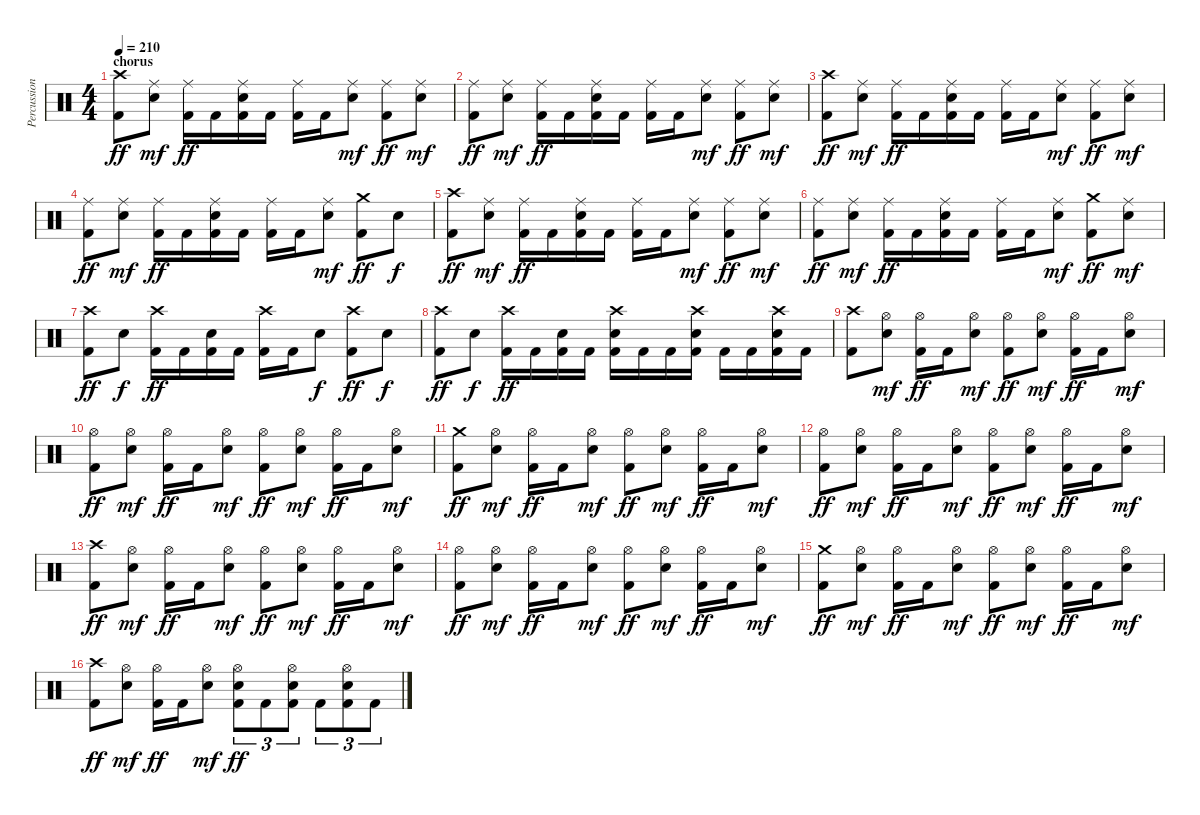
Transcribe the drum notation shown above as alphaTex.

\track ("Percussion" "Percussion") {instrument percussion}
\staff {score}
\articulation defaults
\ts (4 4)
\section ("" "chorus")
\tempo 210
\clef neutral
\ks c
("Crash high (hit)" "Kick (hit) 2").8{dy ff} ("Ride (middle)" "Snare (hit) 2").8{dy mf} ("Ride (middle)" "Kick (hit) 2").16{dy ff} "Kick (hit) 2".16 ("Ride (middle)" "Snare (hit) 2" "Kick (hit) 2").16 "Kick (hit) 2".16 ("Ride (middle)" "Kick (hit) 2").16 "Kick (hit) 2".16 ("Ride (middle)" "Snare (hit) 2").8{dy mf} ("Ride (middle)" "Kick (hit) 2").8{dy ff} ("Ride (middle)" "Snare (hit) 2").8{dy mf} |
("Ride (middle)" "Kick (hit) 2").8{dy ff} ("Ride (middle)" "Snare (hit) 2").8{dy mf} ("Ride (middle)" "Kick (hit) 2").16{dy ff} "Kick (hit) 2".16 ("Ride (middle)" "Snare (hit) 2" "Kick (hit) 2").16 "Kick (hit) 2".16 ("Ride (middle)" "Kick (hit) 2").16 "Kick (hit) 2".16 ("Ride (middle)" "Snare (hit) 2").8{dy mf} ("Ride (middle)" "Kick (hit) 2").8{dy ff} ("Ride (middle)" "Snare (hit) 2").8{dy mf} |
("Crash high (hit)" "Kick (hit) 2").8{dy ff} ("Ride (middle)" "Snare (hit) 2").8{dy mf} ("Ride (middle)" "Kick (hit) 2").16{dy ff} "Kick (hit) 2".16 ("Ride (middle)" "Snare (hit) 2" "Kick (hit) 2").16 "Kick (hit) 2".16 ("Ride (middle)" "Kick (hit) 2").16 "Kick (hit) 2".16 ("Ride (middle)" "Snare (hit) 2").8{dy mf} ("Ride (middle)" "Kick (hit) 2").8{dy ff} ("Ride (middle)" "Snare (hit) 2").8{dy mf} |
("Ride (middle)" "Kick (hit) 2").8{dy ff} ("Ride (middle)" "Snare (hit) 2").8{dy mf} ("Ride (middle)" "Kick (hit) 2").16{dy ff} "Kick (hit) 2".16 ("Ride (middle)" "Snare (hit) 2" "Kick (hit) 2").16 "Kick (hit) 2".16 ("Ride (middle)" "Kick (hit) 2").16 "Kick (hit) 2".16 ("Ride (middle)" "Snare (hit) 2").8{dy mf} ("Crash medium (hit)" "Kick (hit) 2").8{dy ff} "Snare (hit) 2".8{dy f} |
("Crash high (hit)" "Kick (hit) 2").8{dy ff} ("Ride (middle)" "Snare (hit) 2").8{dy mf} ("Ride (middle)" "Kick (hit) 2").16{dy ff} "Kick (hit) 2".16 ("Ride (middle)" "Snare (hit) 2" "Kick (hit) 2").16 "Kick (hit) 2".16 ("Ride (middle)" "Kick (hit) 2").16 "Kick (hit) 2".16 ("Ride (middle)" "Snare (hit) 2").8{dy mf} ("Ride (middle)" "Kick (hit) 2").8{dy ff} ("Ride (middle)" "Snare (hit) 2").8{dy mf} |
("Ride (middle)" "Kick (hit) 2").8{dy ff} ("Ride (middle)" "Snare (hit) 2").8{dy mf} ("Ride (middle)" "Kick (hit) 2").16{dy ff} "Kick (hit) 2".16 ("Ride (middle)" "Snare (hit) 2" "Kick (hit) 2").16 "Kick (hit) 2".16 ("Ride (middle)" "Kick (hit) 2").16 "Kick (hit) 2".16 ("Ride (middle)" "Snare (hit) 2").8{dy mf} ("Crash medium (hit)" "Kick (hit) 2").8{dy ff} ("Ride (middle)" "Snare (hit) 2").8{dy mf} |
("Crash high (hit)" "Kick (hit) 2").8{dy ff} "Snare (hit) 2".8{dy f} ("Crash high (hit)" "Kick (hit) 2").16{dy ff} "Kick (hit) 2".16 ("Snare (hit) 2" "Kick (hit) 2").16 "Kick (hit) 2".16 ("Crash high (hit)" "Kick (hit) 2").16 "Kick (hit) 2".16 "Snare (hit) 2".8{dy f} ("Crash high (hit)" "Kick (hit) 2").8{dy ff} "Snare (hit) 2".8{dy f} |
("Crash high (hit)" "Kick (hit) 2").8{dy ff} "Snare (hit) 2".8{dy f} ("Crash high (hit)" "Kick (hit) 2").16{dy ff} "Kick (hit) 2".16 ("Snare (hit) 2" "Kick (hit) 2").16 "Kick (hit) 2".16 ("Crash high (hit)" "Snare (hit) 2" "Kick (hit) 2").16 "Kick (hit) 2".16 "Kick (hit) 2".16 ("Crash high (hit)" "Snare (hit) 2" "Kick (hit) 2").16 "Kick (hit) 2".16 "Kick (hit) 2".16 ("Crash high (hit)" "Snare (hit) 2" "Kick (hit) 2").16 "Kick (hit) 2".16 |
("Crash high (hit)" "Kick (hit) 2").8 ("Hi-Hat (open)" "Snare (hit) 2").8{dy mf} ("Hi-Hat (open)" "Kick (hit) 2").16{dy ff} "Kick (hit) 2".16 ("Hi-Hat (open)" "Snare (hit) 2").8{dy mf} ("Hi-Hat (open)" "Kick (hit) 2").8{dy ff} ("Hi-Hat (open)" "Snare (hit) 2").8{dy mf} ("Hi-Hat (open)" "Kick (hit) 2").16{dy ff} "Kick (hit) 2".16 ("Hi-Hat (open)" "Snare (hit) 2").8{dy mf} |
("Hi-Hat (open)" "Kick (hit) 2").8{dy ff} ("Hi-Hat (open)" "Snare (hit) 2").8{dy mf} ("Hi-Hat (open)" "Kick (hit) 2").16{dy ff} "Kick (hit) 2".16 ("Hi-Hat (open)" "Snare (hit) 2").8{dy mf} ("Hi-Hat (open)" "Kick (hit) 2").8{dy ff} ("Hi-Hat (open)" "Snare (hit) 2").8{dy mf} ("Hi-Hat (open)" "Kick (hit) 2").16{dy ff} "Kick (hit) 2".16 ("Hi-Hat (open)" "Snare (hit) 2").8{dy mf} |
("Crash medium (hit)" "Kick (hit) 2").8{dy ff} ("Hi-Hat (open)" "Snare (hit) 2").8{dy mf} ("Hi-Hat (open)" "Kick (hit) 2").16{dy ff} "Kick (hit) 2".16 ("Hi-Hat (open)" "Snare (hit) 2").8{dy mf} ("Hi-Hat (open)" "Kick (hit) 2").8{dy ff} ("Hi-Hat (open)" "Snare (hit) 2").8{dy mf} ("Hi-Hat (open)" "Kick (hit) 2").16{dy ff} "Kick (hit) 2".16 ("Hi-Hat (open)" "Snare (hit) 2").8{dy mf} |
("Hi-Hat (open)" "Kick (hit) 2").8{dy ff} ("Hi-Hat (open)" "Snare (hit) 2").8{dy mf} ("Hi-Hat (open)" "Kick (hit) 2").16{dy ff} "Kick (hit) 2".16 ("Hi-Hat (open)" "Snare (hit) 2").8{dy mf} ("Hi-Hat (open)" "Kick (hit) 2").8{dy ff} ("Hi-Hat (open)" "Snare (hit) 2").8{dy mf} ("Hi-Hat (open)" "Kick (hit) 2").16{dy ff} "Kick (hit) 2".16 ("Hi-Hat (open)" "Snare (hit) 2").8{dy mf} |
("Crash high (hit)" "Kick (hit) 2").8{dy ff} ("Hi-Hat (open)" "Snare (hit) 2").8{dy mf} ("Hi-Hat (open)" "Kick (hit) 2").16{dy ff} "Kick (hit) 2".16 ("Hi-Hat (open)" "Snare (hit) 2").8{dy mf} ("Hi-Hat (open)" "Kick (hit) 2").8{dy ff} ("Hi-Hat (open)" "Snare (hit) 2").8{dy mf} ("Hi-Hat (open)" "Kick (hit) 2").16{dy ff} "Kick (hit) 2".16 ("Hi-Hat (open)" "Snare (hit) 2").8{dy mf} |
("Hi-Hat (open)" "Kick (hit) 2").8{dy ff} ("Hi-Hat (open)" "Snare (hit) 2").8{dy mf} ("Hi-Hat (open)" "Kick (hit) 2").16{dy ff} "Kick (hit) 2".16 ("Hi-Hat (open)" "Snare (hit) 2").8{dy mf} ("Hi-Hat (open)" "Kick (hit) 2").8{dy ff} ("Hi-Hat (open)" "Snare (hit) 2").8{dy mf} ("Hi-Hat (open)" "Kick (hit) 2").16{dy ff} "Kick (hit) 2".16 ("Hi-Hat (open)" "Snare (hit) 2").8{dy mf} |
("Crash medium (hit)" "Kick (hit) 2").8{dy ff} ("Hi-Hat (open)" "Snare (hit) 2").8{dy mf} ("Hi-Hat (open)" "Kick (hit) 2").16{dy ff} "Kick (hit) 2".16 ("Hi-Hat (open)" "Snare (hit) 2").8{dy mf} ("Hi-Hat (open)" "Kick (hit) 2").8{dy ff} ("Hi-Hat (open)" "Snare (hit) 2").8{dy mf} ("Hi-Hat (open)" "Kick (hit) 2").16{dy ff} "Kick (hit) 2".16 ("Hi-Hat (open)" "Snare (hit) 2").8{dy mf} |
("Crash high (hit)" "Kick (hit) 2").8{dy ff} ("Hi-Hat (open)" "Snare (hit) 2").8{dy mf} ("Hi-Hat (open)" "Kick (hit) 2").16{dy ff} "Kick (hit) 2".16 ("Hi-Hat (open)" "Snare (hit) 2").8{dy mf} ("Hi-Hat (open)" "Snare (hit) 2" "Kick (hit) 2").8{tu (3 2) dy ff} "Kick (hit) 2".8{tu (3 2)} ("Hi-Hat (open)" "Snare (hit) 2" "Kick (hit) 2").8{tu (3 2)} "Kick (hit) 2".8{tu (3 2)} ("Hi-Hat (open)" "Snare (hit) 2" "Kick (hit) 2").8{tu (3 2)} "Kick (hit) 2".8{tu (3 2)}
